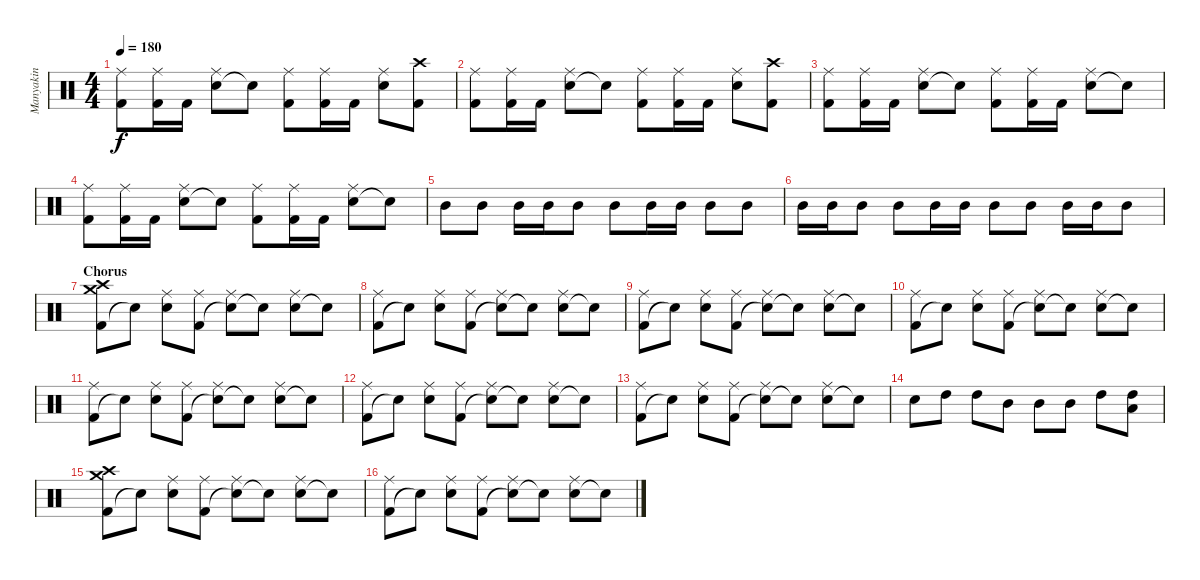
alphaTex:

\track ("Manyakin" "Manyakin") {instrument percussion}
\staff {score}
\articulation defaults
\ts (4 4)
\tempo 180
\clef neutral
\ks c
("Kick (hit) 2" "Ride (middle)").8{dy f} ("Kick (hit) 2" "Ride (middle)").16 "Kick (hit) 2".16 ("Snare (hit) 2" "Ride (middle)").8 "Snare (hit)"{t}.8 ("Kick (hit) 2" "Ride (middle)").8 ("Kick (hit) 2" "Ride (middle)").16 "Kick (hit) 2".16 ("Snare (hit) 2" "Ride (middle)").8 ("Kick (hit) 2" "Crash high (hit)").8 |
("Kick (hit) 2" "Ride (middle)").8 ("Kick (hit) 2" "Ride (middle)").16 "Kick (hit) 2".16 ("Snare (hit) 2" "Ride (middle)").8 "Snare (hit)"{t}.8 ("Kick (hit) 2" "Ride (middle)").8 ("Kick (hit) 2" "Ride (middle)").16 "Kick (hit) 2".16 ("Snare (hit) 2" "Ride (middle)").8 ("Kick (hit) 2" "Crash high (hit)").8 |
("Kick (hit) 2" "Ride (middle)").8 ("Kick (hit) 2" "Ride (middle)").16 "Kick (hit) 2".16 ("Snare (hit) 2" "Ride (middle)").8 "Snare (hit)"{t}.8 ("Kick (hit) 2" "Ride (middle)").8 ("Kick (hit) 2" "Ride (middle)").16 "Kick (hit) 2".16 ("Snare (hit) 2" "Ride (middle)").8 "Snare (hit) 2"{t}.8 |
("Kick (hit) 2" "Ride (middle)").8 ("Kick (hit) 2" "Ride (middle)").16 "Kick (hit) 2".16 ("Snare (hit) 2" "Ride (middle)").8 "Snare (hit)"{t}.8 ("Kick (hit) 2" "Ride (middle)").8 ("Kick (hit) 2" "Ride (middle)").16 "Kick (hit) 2".16 ("Snare (hit) 2" "Ride (middle)").8 "Snare (hit) 2"{t}.8 |
"Mid Tom (hit)".8 "Mid Tom (hit)".8 "Mid Tom (hit)".16 "Mid Tom (hit)".16 "Mid Tom (hit)".8 "Mid Tom (hit)".8 "Mid Tom (hit)".16 "Mid Tom (hit)".16 "Mid Tom (hit)".8 "Mid Tom (hit)".8 |
"Mid Tom (hit)".16 "Mid Tom (hit)".16 "Mid Tom (hit)".8 "Mid Tom (hit)".8 "Mid Tom (hit)".16 "Mid Tom (hit)".16 "Mid Tom (hit)".8 "Mid Tom (hit)".8 "Mid Tom (hit)".16 "Mid Tom (hit)".16 "Mid Tom (hit)".8 |
\section ("" "Chorus")
("Kick (hit) 2" "Crash high (hit)" "Crash medium (hit)").8 "Snare (hit)"{t}.8 ("Snare (hit) 2" "Ride (middle)").8 ("Kick (hit) 2" "Ride (middle)").8 ("Snare (hit)"{t} "Ride (middle)").8 "Snare (hit)"{t}.8 ("Snare (hit) 2" "Ride (middle)").8 "Snare (hit) 2"{t}.8 |
("Kick (hit) 2" "Ride (middle)").8 "Snare (hit)"{t}.8 ("Snare (hit) 2" "Ride (middle)").8 ("Kick (hit) 2" "Ride (middle)").8 ("Snare (hit)"{t} "Ride (middle)").8 "Snare (hit)"{t}.8 ("Snare (hit) 2" "Ride (middle)").8 "Snare (hit) 2"{t}.8 |
("Kick (hit) 2" "Ride (middle)").8 "Snare (hit)"{t}.8 ("Snare (hit) 2" "Ride (middle)").8 ("Kick (hit) 2" "Ride (middle)").8 ("Snare (hit)"{t} "Ride (middle)").8 "Snare (hit)"{t}.8 ("Snare (hit) 2" "Ride (middle)").8 "Snare (hit) 2"{t}.8 |
("Kick (hit) 2" "Ride (middle)").8 "Snare (hit)"{t}.8 ("Snare (hit) 2" "Ride (middle)").8 ("Kick (hit) 2" "Ride (middle)").8 ("Snare (hit)"{t} "Ride (middle)").8 "Snare (hit)"{t}.8 ("Snare (hit) 2" "Ride (middle)").8 "Snare (hit) 2"{t}.8 |
("Kick (hit) 2" "Ride (middle)").8 "Snare (hit)"{t}.8 ("Snare (hit) 2" "Ride (middle)").8 ("Kick (hit) 2" "Ride (middle)").8 ("Snare (hit)"{t} "Ride (middle)").8 "Snare (hit)"{t}.8 ("Snare (hit) 2" "Ride (middle)").8 "Snare (hit) 2"{t}.8 |
("Kick (hit) 2" "Ride (middle)").8 "Snare (hit)"{t}.8 ("Snare (hit) 2" "Ride (middle)").8 ("Kick (hit) 2" "Ride (middle)").8 ("Snare (hit)"{t} "Ride (middle)").8 "Snare (hit)"{t}.8 ("Snare (hit) 2" "Ride (middle)").8 "Snare (hit) 2"{t}.8 |
("Kick (hit) 2" "Ride (middle)").8 "Snare (hit)"{t}.8 ("Snare (hit) 2" "Ride (middle)").8 ("Kick (hit) 2" "Ride (middle)").8 ("Snare (hit)"{t} "Ride (middle)").8 "Snare (hit)"{t}.8 ("Snare (hit) 2" "Ride (middle)").8 "Snare (hit) 2"{t}.8 |
"Electric Snare (hit)".8 "High Tom (hit)".8 "High Tom (hit)".8 "Mid Tom (hit)".8 "Mid Tom (hit)".8 "Mid Tom (hit)".8 "High Tom (hit)".8 ("High Tom (hit)" "Low Tom (hit)").8 |
("Kick (hit) 2" "Crash high (hit)" "Crash medium (hit)").8 "Snare (hit)"{t}.8 ("Snare (hit) 2" "Ride (middle)").8 ("Kick (hit) 2" "Ride (middle)").8 ("Snare (hit)"{t} "Ride (middle)").8 "Snare (hit)"{t}.8 ("Snare (hit) 2" "Ride (middle)").8 "Snare (hit) 2"{t}.8 |
("Kick (hit) 2" "Ride (middle)").8 "Snare (hit)"{t}.8 ("Snare (hit) 2" "Ride (middle)").8 ("Kick (hit) 2" "Ride (middle)").8 ("Snare (hit)"{t} "Ride (middle)").8 "Snare (hit)"{t}.8 ("Snare (hit) 2" "Ride (middle)").8 "Snare (hit) 2"{t}.8
